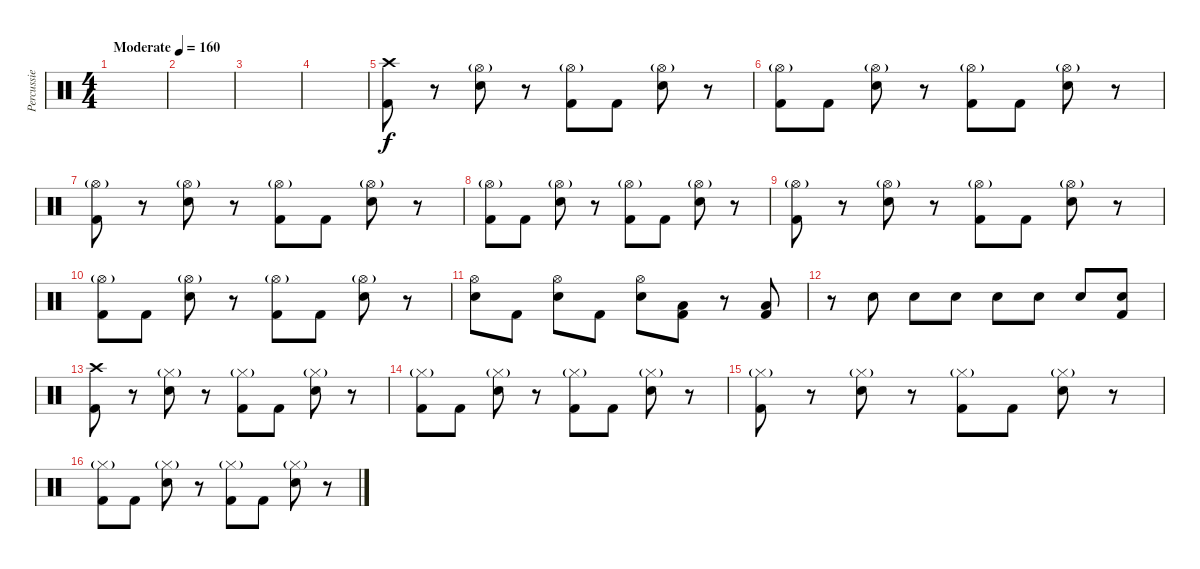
\track ("Percussie" "Percussie") {instrument percussion}
\staff {score}
\articulation defaults
\ts (4 4)
\tempo (160 "Moderate")
\clef neutral
\ks c
|
|
|
|
("Crash high (hit)" "Kick (hit) 2").8 r.8 ("Hi-Hat (open)"{g} "Snare (hit) 2").8 r.8 ("Hi-Hat (open)"{g} "Kick (hit) 2").8 "Kick (hit) 2".8 ("Hi-Hat (open)"{g} "Snare (hit) 2").8 r.8 |
("Hi-Hat (open)"{g} "Kick (hit) 2").8 "Kick (hit) 2".8 ("Hi-Hat (open)"{g} "Snare (hit) 2").8 r.8 ("Hi-Hat (open)"{g} "Kick (hit) 2").8 "Kick (hit) 2".8 ("Hi-Hat (open)"{g} "Snare (hit) 2").8 r.8 |
("Hi-Hat (open)"{g} "Kick (hit) 2").8 r.8 ("Hi-Hat (open)"{g} "Snare (hit) 2").8 r.8 ("Hi-Hat (open)"{g} "Kick (hit) 2").8 "Kick (hit) 2".8 ("Hi-Hat (open)"{g} "Snare (hit) 2").8 r.8 |
("Hi-Hat (open)"{g} "Kick (hit) 2").8 "Kick (hit) 2".8 ("Hi-Hat (open)"{g} "Snare (hit) 2").8 r.8 ("Hi-Hat (open)"{g} "Kick (hit) 2").8 "Kick (hit) 2".8 ("Hi-Hat (open)"{g} "Snare (hit) 2").8 r.8 |
("Hi-Hat (open)"{g} "Kick (hit) 2").8 r.8 ("Hi-Hat (open)"{g} "Snare (hit) 2").8 r.8 ("Hi-Hat (open)"{g} "Kick (hit) 2").8 "Kick (hit) 2".8 ("Hi-Hat (open)"{g} "Snare (hit) 2").8 r.8 |
("Hi-Hat (open)"{g} "Kick (hit) 2").8 "Kick (hit) 2".8 ("Hi-Hat (open)"{g} "Snare (hit) 2").8 r.8 ("Hi-Hat (open)"{g} "Kick (hit) 2").8 "Kick (hit) 2".8 ("Hi-Hat (open)"{g} "Snare (hit) 2").8 r.8 |
("Hi-Hat (open)" "Snare (hit) 2").8 "Kick (hit) 2".8 ("Hi-Hat (open)" "Snare (hit) 2").8 "Kick (hit) 2".8 ("Hi-Hat (open)" "Snare (hit) 2").8 ("Low Floor Tom (hit)" "Kick (hit) 2").8 r.8 ("Low Floor Tom (hit)" "Kick (hit) 2").8 |
r.8 "Snare (hit) 2".8 "Snare (hit) 2".8 "Snare (hit) 2".8 "Snare (hit) 2".8 "Snare (hit) 2".8 "Snare (hit) 2".8 ("Snare (hit) 2" "Kick (hit) 2").8 |
("Crash high (hit)" "Kick (hit) 2").8 r.8 ("Hi-Hat (closed)"{g} "Snare (hit) 2").8 r.8 ("Hi-Hat (closed)"{g} "Kick (hit) 2").8 "Kick (hit) 2".8 ("Hi-Hat (closed)"{g} "Snare (hit) 2").8 r.8 |
("Hi-Hat (closed)"{g} "Kick (hit) 2").8 "Kick (hit) 2".8 ("Hi-Hat (closed)"{g} "Snare (hit) 2").8 r.8 ("Hi-Hat (closed)"{g} "Kick (hit) 2").8 "Kick (hit) 2".8 ("Hi-Hat (closed)"{g} "Snare (hit) 2").8 r.8 |
("Hi-Hat (closed)"{g} "Kick (hit) 2").8 r.8 ("Hi-Hat (closed)"{g} "Snare (hit) 2").8 r.8 ("Hi-Hat (closed)"{g} "Kick (hit) 2").8 "Kick (hit) 2".8 ("Hi-Hat (closed)"{g} "Snare (hit) 2").8 r.8 |
("Hi-Hat (closed)"{g} "Kick (hit) 2").8 "Kick (hit) 2".8 ("Hi-Hat (closed)"{g} "Snare (hit) 2").8 r.8 ("Hi-Hat (closed)"{g} "Kick (hit) 2").8 "Kick (hit) 2".8 ("Hi-Hat (closed)"{g} "Snare (hit) 2").8 r.8
